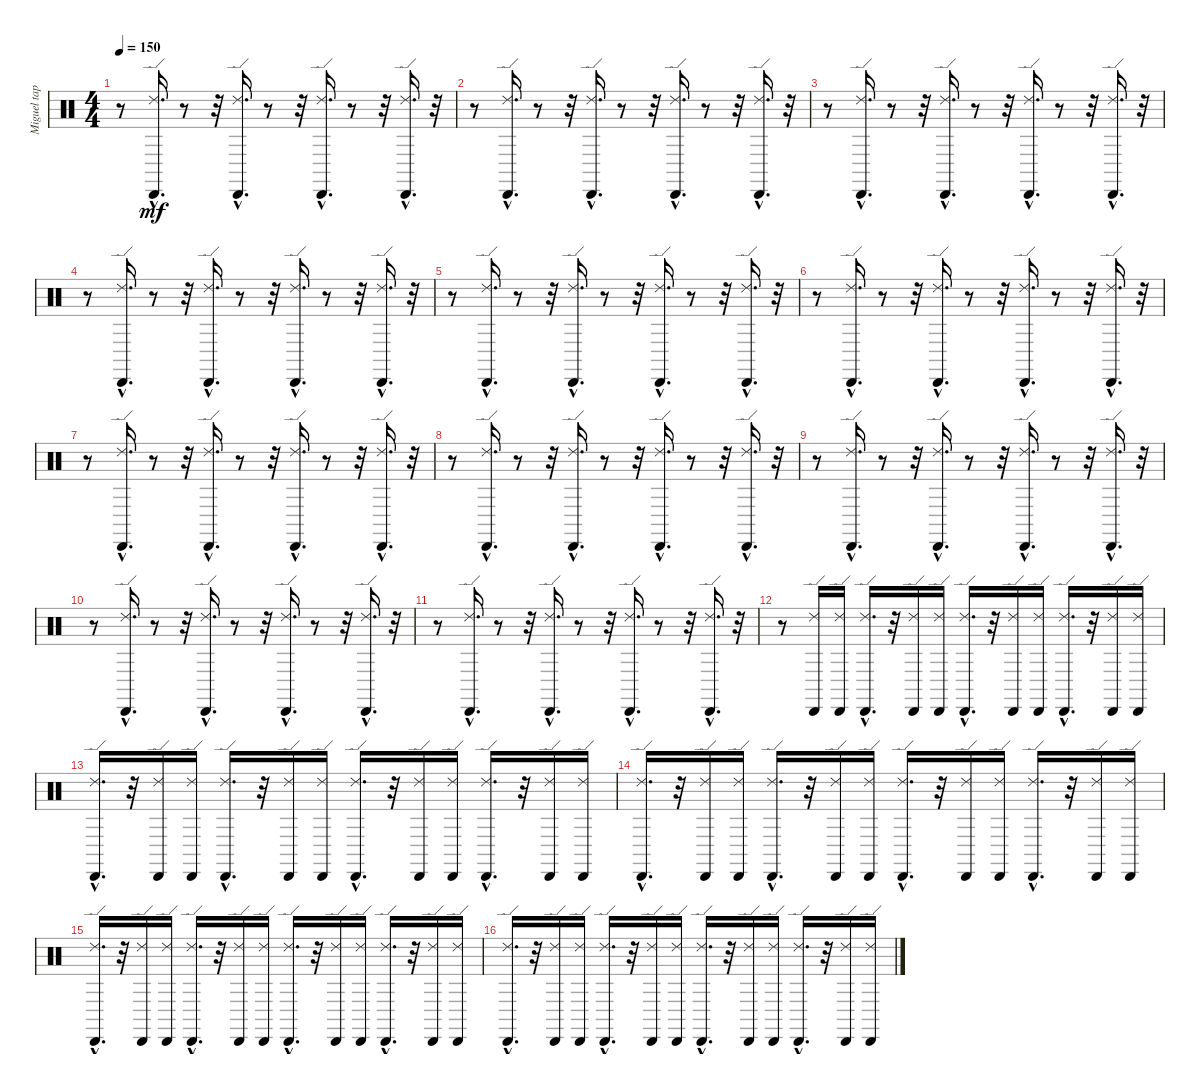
\track ("Miguel tapia" "Miguel tap") {instrument percussion}
\staff {score}
\articulation defaults
\ts (4 4)
\tempo 150
\clef neutral
\ks c
r.8{dy mf} ("Ride (edge) 2"{hac} "Cabasa (hit)"{hac}).16{d} r.8 r.32 ("Ride (edge) 2"{hac} "Cabasa (hit)"{hac}).16{d} r.8 r.32 ("Cabasa (hit)"{hac} "Ride (edge) 2"{hac}).16{d} r.8 r.32 ("Ride (edge) 2"{hac} "Cabasa (hit)"{hac}).16{d} r.32 |
r.8 ("Ride (edge) 2"{hac} "Cabasa (hit)"{hac}).16{d} r.8 r.32 ("Ride (edge) 2"{hac} "Cabasa (hit)"{hac}).16{d} r.8 r.32 ("Ride (edge) 2"{hac} "Cabasa (hit)"{hac}).16{d} r.8 r.32 ("Cabasa (hit)"{hac} "Ride (edge) 2"{hac}).16{d} r.32 |
r.8 ("Cabasa (hit)"{hac} "Ride (edge) 2"{hac}).16{d} r.8 r.32 ("Ride (edge) 2"{hac} "Cabasa (hit)"{hac}).16{d} r.8 r.32 ("Cabasa (hit)"{hac} "Ride (edge) 2"{hac}).16{d} r.8 r.32 ("Cabasa (hit)"{hac} "Ride (edge) 2"{hac}).16{d} r.32 |
r.8 ("Ride (edge) 2"{hac} "Cabasa (hit)"{hac}).16{d} r.8 r.32 ("Cabasa (hit)"{hac} "Ride (edge) 2"{hac}).16{d} r.8 r.32 ("Ride (edge) 2"{hac} "Cabasa (hit)"{hac}).16{d} r.8 r.32 ("Cabasa (hit)"{hac} "Ride (edge) 2"{hac}).16{d} r.32 |
r.8 ("Cabasa (hit)"{hac} "Ride (edge) 2"{hac}).16{d} r.8 r.32 ("Cabasa (hit)"{hac} "Ride (edge) 2"{hac}).16{d} r.8 r.32 ("Cabasa (hit)"{hac} "Ride (edge) 2"{hac}).16{d} r.8 r.32 ("Ride (edge) 2"{hac} "Cabasa (hit)"{hac}).16{d} r.32 |
r.8 ("Ride (edge) 2"{hac} "Cabasa (hit)"{hac}).16{d} r.8 r.32 ("Ride (edge) 2"{hac} "Cabasa (hit)"{hac}).16{d} r.8 r.32 ("Ride (edge) 2"{hac} "Cabasa (hit)"{hac}).16{d} r.8 r.32 ("Cabasa (hit)"{hac} "Ride (edge) 2"{hac}).16{d} r.32 |
r.8 ("Cabasa (hit)"{hac} "Ride (edge) 2"{hac}).16{d} r.8 r.32 ("Cabasa (hit)"{hac} "Ride (edge) 2"{hac}).16{d} r.8 r.32 ("Ride (edge) 2"{hac} "Cabasa (hit)"{hac}).16{d} r.8 r.32 ("Cabasa (hit)"{hac} "Ride (edge) 2"{hac}).16{d} r.32 |
r.8 ("Ride (edge) 2"{hac} "Cabasa (hit)"{hac}).16{d} r.8 r.32 ("Cabasa (hit)"{hac} "Ride (edge) 2"{hac}).16{d} r.8 r.32 ("Ride (edge) 2"{hac} "Cabasa (hit)"{hac}).16{d} r.8 r.32 ("Cabasa (hit)"{hac} "Ride (edge) 2"{hac}).16{d} r.32 |
r.8 ("Ride (edge) 2"{hac} "Cabasa (hit)"{hac}).16{d} r.8 r.32 ("Cabasa (hit)"{hac} "Ride (edge) 2"{hac}).16{d} r.8 r.32 ("Cabasa (hit)"{hac} "Ride (edge) 2"{hac}).16{d} r.8 r.32 ("Cabasa (hit)"{hac} "Ride (edge) 2"{hac}).16{d} r.32 |
r.8 ("Ride (edge) 2"{hac} "Cabasa (hit)"{hac}).16{d} r.8 r.32 ("Cabasa (hit)"{hac} "Ride (edge) 2"{hac}).16{d} r.8 r.32 ("Cabasa (hit)"{hac} "Ride (edge) 2"{hac}).16{d} r.8 r.32 ("Ride (edge) 2"{hac} "Cabasa (hit)"{hac}).16{d} r.32 |
r.8 ("Ride (edge) 2"{hac} "Cabasa (hit)"{hac}).16{d} r.8 r.32 ("Ride (edge) 2"{hac} "Cabasa (hit)"{hac}).16{d} r.8 r.32 ("Cabasa (hit)"{hac} "Ride (edge) 2"{hac}).16{d} r.8 r.32 ("Cabasa (hit)"{hac} "Ride (edge) 2"{hac}).16{d} r.32 |
r.8 ("Cabasa (hit)" "Ride (edge) 2").16 ("Cabasa (hit)" "Ride (edge) 2").16 ("Ride (edge) 2"{hac} "Cabasa (hit)"{hac}).16{d} r.32 ("Cabasa (hit)" "Ride (edge) 2").16 ("Ride (edge) 2" "Cabasa (hit)").16 ("Cabasa (hit)"{hac} "Ride (edge) 2"{hac}).16{d} r.32 ("Ride (edge) 2" "Cabasa (hit)").16 ("Ride (edge) 2" "Cabasa (hit)").16 ("Cabasa (hit)"{hac} "Ride (edge) 2"{hac}).16{d} r.32 ("Cabasa (hit)" "Ride (edge) 2").16 ("Cabasa (hit)" "Ride (edge) 2").16 |
("Cabasa (hit)"{hac} "Ride (edge) 2"{hac}).16{d} r.32 ("Cabasa (hit)" "Ride (edge) 2").16 ("Ride (edge) 2" "Cabasa (hit)").16 ("Ride (edge) 2"{hac} "Cabasa (hit)"{hac}).16{d} r.32 ("Cabasa (hit)" "Ride (edge) 2").16 ("Ride (edge) 2" "Cabasa (hit)").16 ("Cabasa (hit)"{hac} "Ride (edge) 2"{hac}).16{d} r.32 ("Cabasa (hit)" "Ride (edge) 2").16 ("Cabasa (hit)" "Ride (edge) 2").16 ("Cabasa (hit)"{hac} "Ride (edge) 2"{hac}).16{d} r.32 ("Cabasa (hit)" "Ride (edge) 2").16 ("Cabasa (hit)" "Ride (edge) 2").16 |
("Ride (edge) 2"{hac} "Cabasa (hit)"{hac}).16{d} r.32 ("Cabasa (hit)" "Ride (edge) 2").16 ("Cabasa (hit)" "Ride (edge) 2").16 ("Ride (edge) 2"{hac} "Cabasa (hit)"{hac}).16{d} r.32 ("Cabasa (hit)" "Ride (edge) 2").16 ("Cabasa (hit)" "Ride (edge) 2").16 ("Ride (edge) 2"{hac} "Cabasa (hit)"{hac}).16{d} r.32 ("Cabasa (hit)" "Ride (edge) 2").16 ("Cabasa (hit)" "Ride (edge) 2").16 ("Cabasa (hit)"{hac} "Ride (edge) 2"{hac}).16{d} r.32 ("Ride (edge) 2" "Cabasa (hit)").16 ("Ride (edge) 2" "Cabasa (hit)").16 |
("Cabasa (hit)"{hac} "Ride (edge) 2"{hac}).16{d} r.32 ("Cabasa (hit)" "Ride (edge) 2").16 ("Cabasa (hit)" "Ride (edge) 2").16 ("Cabasa (hit)"{hac} "Ride (edge) 2"{hac}).16{d} r.32 ("Ride (edge) 2" "Cabasa (hit)").16 ("Cabasa (hit)" "Ride (edge) 2").16 ("Ride (edge) 2"{hac} "Cabasa (hit)"{hac}).16{d} r.32 ("Ride (edge) 2" "Cabasa (hit)").16 ("Cabasa (hit)" "Ride (edge) 2").16 ("Ride (edge) 2"{hac} "Cabasa (hit)"{hac}).16{d} r.32 ("Ride (edge) 2" "Cabasa (hit)").16 ("Ride (edge) 2" "Cabasa (hit)").16 |
("Cabasa (hit)"{hac} "Ride (edge) 2"{hac}).16{d} r.32 ("Ride (edge) 2" "Cabasa (hit)").16 ("Ride (edge) 2" "Cabasa (hit)").16 ("Ride (edge) 2"{hac} "Cabasa (hit)"{hac}).16{d} r.32 ("Cabasa (hit)" "Ride (edge) 2").16 ("Cabasa (hit)" "Ride (edge) 2").16 ("Cabasa (hit)"{hac} "Ride (edge) 2"{hac}).16{d} r.32 ("Cabasa (hit)" "Ride (edge) 2").16 ("Ride (edge) 2" "Cabasa (hit)").16 ("Cabasa (hit)"{hac} "Ride (edge) 2"{hac}).16{d} r.32 ("Ride (edge) 2" "Cabasa (hit)").16 ("Ride (edge) 2" "Cabasa (hit)").16
